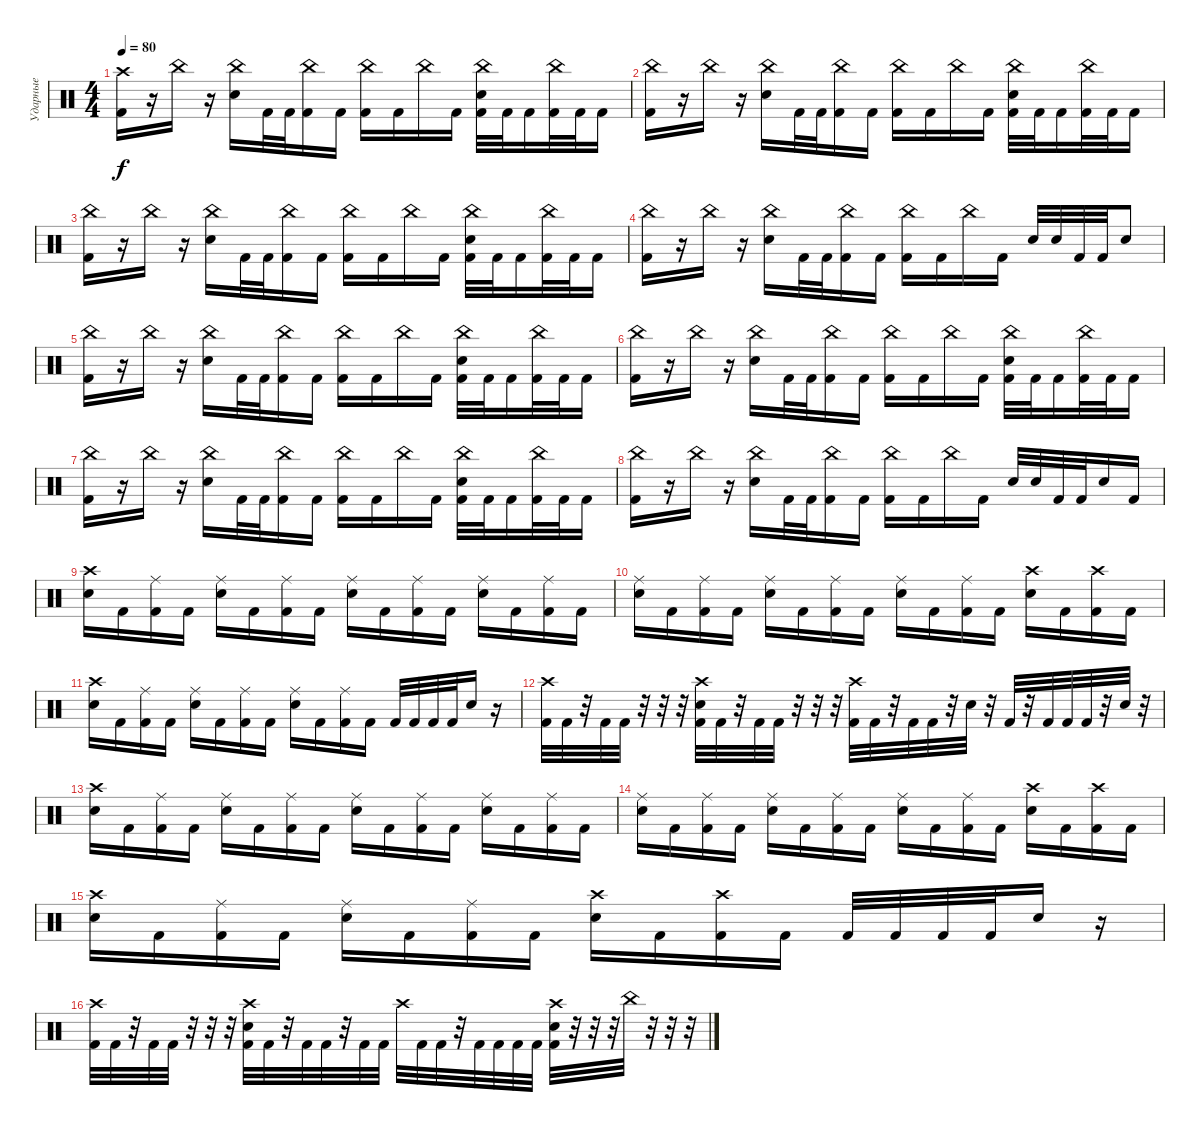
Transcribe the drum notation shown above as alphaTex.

\track ("Ударные" "Ударные") {instrument percussion}
\staff {score}
\articulation defaults
\ts (4 4)
\tempo 80
\clef neutral
\ks c
("Crash high (hit)" "Kick (hit) 2").16{dy f} r.16 "China (hit)".16 r.16 ("China (hit)" "Electric Snare (hit)").16 "Kick (hit) 2".32 "Kick (hit) 2".32 ("China (hit)" "Kick (hit) 2").16 "Kick (hit) 2".16 ("China (hit)" "Kick (hit) 2").16 "Kick (hit) 2".16 "China (hit)".16 "Kick (hit) 2".16 ("China (hit)" "Electric Snare (hit)" "Kick (hit) 2").32 "Kick (hit) 2".32 "Kick (hit) 2".16 ("China (hit)" "Kick (hit) 2").32 "Kick (hit) 2".32 "Kick (hit) 2".16 |
("China (hit)" "Kick (hit) 2").16 r.16 "China (hit)".16 r.16 ("China (hit)" "Electric Snare (hit)").16 "Kick (hit) 2".32 "Kick (hit) 2".32 ("China (hit)" "Kick (hit) 2").16 "Kick (hit) 2".16 ("China (hit)" "Kick (hit) 2").16 "Kick (hit) 2".16 "China (hit)".16 "Kick (hit) 2".16 ("China (hit)" "Electric Snare (hit)" "Kick (hit) 2").32 "Kick (hit) 2".32 "Kick (hit) 2".16 ("China (hit)" "Kick (hit) 2").32 "Kick (hit) 2".32 "Kick (hit) 2".16 |
("China (hit)" "Kick (hit) 2").16 r.16 "China (hit)".16 r.16 ("China (hit)" "Electric Snare (hit)").16 "Kick (hit) 2".32 "Kick (hit) 2".32 ("China (hit)" "Kick (hit) 2").16 "Kick (hit) 2".16 ("China (hit)" "Kick (hit) 2").16 "Kick (hit) 2".16 "China (hit)".16 "Kick (hit) 2".16 ("China (hit)" "Electric Snare (hit)" "Kick (hit) 2").32 "Kick (hit) 2".32 "Kick (hit) 2".16 ("China (hit)" "Kick (hit) 2").32 "Kick (hit) 2".32 "Kick (hit) 2".16 |
("China (hit)" "Kick (hit) 2").16 r.16 "China (hit)".16 r.16 ("China (hit)" "Electric Snare (hit)").16 "Kick (hit) 2".32 "Kick (hit) 2".32 ("China (hit)" "Kick (hit) 2").16 "Kick (hit) 2".16 ("China (hit)" "Kick (hit) 2").16 "Kick (hit) 2".16 "China (hit)".16 "Kick (hit) 2".16 "Electric Snare (hit)".32 "Electric Snare (hit)".32 "Kick (hit) 2".32 "Kick (hit) 2".32 "Electric Snare (hit)".8 |
("China (hit)" "Kick (hit) 2").16 r.16 "China (hit)".16 r.16 ("China (hit)" "Electric Snare (hit)").16 "Kick (hit) 2".32 "Kick (hit) 2".32 ("China (hit)" "Kick (hit) 2").16 "Kick (hit) 2".16 ("China (hit)" "Kick (hit) 2").16 "Kick (hit) 2".16 "China (hit)".16 "Kick (hit) 2".16 ("China (hit)" "Electric Snare (hit)" "Kick (hit) 2").32 "Kick (hit) 2".32 "Kick (hit) 2".16 ("China (hit)" "Kick (hit) 2").32 "Kick (hit) 2".32 "Kick (hit) 2".16 |
("China (hit)" "Kick (hit) 2").16 r.16 "China (hit)".16 r.16 ("China (hit)" "Electric Snare (hit)").16 "Kick (hit) 2".32 "Kick (hit) 2".32 ("China (hit)" "Kick (hit) 2").16 "Kick (hit) 2".16 ("China (hit)" "Kick (hit) 2").16 "Kick (hit) 2".16 "China (hit)".16 "Kick (hit) 2".16 ("China (hit)" "Electric Snare (hit)" "Kick (hit) 2").32 "Kick (hit) 2".32 "Kick (hit) 2".16 ("China (hit)" "Kick (hit) 2").32 "Kick (hit) 2".32 "Kick (hit) 2".16 |
("China (hit)" "Kick (hit) 2").16 r.16 "China (hit)".16 r.16 ("China (hit)" "Electric Snare (hit)").16 "Kick (hit) 2".32 "Kick (hit) 2".32 ("China (hit)" "Kick (hit) 2").16 "Kick (hit) 2".16 ("China (hit)" "Kick (hit) 2").16 "Kick (hit) 2".16 "China (hit)".16 "Kick (hit) 2".16 ("China (hit)" "Electric Snare (hit)" "Kick (hit) 2").32 "Kick (hit) 2".32 "Kick (hit) 2".16 ("China (hit)" "Kick (hit) 2").32 "Kick (hit) 2".32 "Kick (hit) 2".16 |
("China (hit)" "Kick (hit) 2").16 r.16 "China (hit)".16 r.16 ("China (hit)" "Electric Snare (hit)").16 "Kick (hit) 2".32 "Kick (hit) 2".32 ("China (hit)" "Kick (hit) 2").16 "Kick (hit) 2".16 ("China (hit)" "Kick (hit) 2").16 "Kick (hit) 2".16 "China (hit)".16 "Kick (hit) 2".16 "Electric Snare (hit)".32 "Electric Snare (hit)".32 "Kick (hit) 2".32 "Kick (hit) 2".32 "Electric Snare (hit)".16 "Kick (hit) 2".16 |
("Crash high (hit)" "Electric Snare (hit)").16 "Kick (hit) 2".16 ("Ride (middle)" "Kick (hit) 2").16 "Kick (hit) 2".16 ("Ride (middle)" "Electric Snare (hit)").16 "Kick (hit) 2".16 ("Ride (middle)" "Kick (hit) 2").16 "Kick (hit) 2".16 ("Ride (middle)" "Electric Snare (hit)").16 "Kick (hit) 2".16 ("Ride (middle)" "Kick (hit) 2").16 "Kick (hit) 2".16 ("Ride (middle)" "Electric Snare (hit)").16 "Kick (hit) 2".16 ("Ride (middle)" "Kick (hit) 2").16 "Kick (hit) 2".16 |
("Ride (middle)" "Electric Snare (hit)").16 "Kick (hit) 2".16 ("Ride (middle)" "Kick (hit) 2").16 "Kick (hit) 2".16 ("Ride (middle)" "Electric Snare (hit)").16 "Kick (hit) 2".16 ("Ride (middle)" "Kick (hit) 2").16 "Kick (hit) 2".16 ("Ride (middle)" "Electric Snare (hit)").16 "Kick (hit) 2".16 ("Ride (middle)" "Kick (hit) 2").16 "Kick (hit) 2".16 ("Crash high (hit)" "Electric Snare (hit)").16 "Kick (hit) 2".16 ("Crash high (hit)" "Kick (hit) 2").16 "Kick (hit) 2".16 |
("Crash high (hit)" "Electric Snare (hit)").16 "Kick (hit) 2".16 ("Ride (middle)" "Kick (hit) 2").16 "Kick (hit) 2".16 ("Ride (middle)" "Electric Snare (hit)").16 "Kick (hit) 2".16 ("Ride (middle)" "Kick (hit) 2").16 "Kick (hit) 2".16 ("Ride (middle)" "Electric Snare (hit)").16 "Kick (hit) 2".16 ("Ride (middle)" "Kick (hit) 2").16 "Kick (hit) 2".16 "Kick (hit) 2".32 "Kick (hit) 2".32 "Kick (hit) 2".32 "Kick (hit) 2".32 "Electric Snare (hit)".16 r.16 |
("Crash high (hit)" "Kick (hit) 2").32 "Kick (hit) 2".32 r.32 "Kick (hit) 2".32 "Kick (hit) 2".32 r.32 r.32 r.32 ("Crash high (hit)" "Electric Snare (hit)" "Kick (hit) 2").32 "Kick (hit) 2".32 r.32 "Kick (hit) 2".32 "Kick (hit) 2".32 r.32 r.32 r.32 ("Crash high (hit)" "Kick (hit) 2").32 "Kick (hit) 2".32 r.32 "Kick (hit) 2".32 "Kick (hit) 2".32 r.32 "Electric Snare (hit)".32 r.32 "Kick (hit) 2".32 r.32 "Kick (hit) 2".32 "Kick (hit) 2".32 "Kick (hit) 2".32 r.32 "Electric Snare (hit)".32 r.32 |
("Crash high (hit)" "Electric Snare (hit)").16 "Kick (hit) 2".16 ("Ride (middle)" "Kick (hit) 2").16 "Kick (hit) 2".16 ("Ride (middle)" "Electric Snare (hit)").16 "Kick (hit) 2".16 ("Ride (middle)" "Kick (hit) 2").16 "Kick (hit) 2".16 ("Ride (middle)" "Electric Snare (hit)").16 "Kick (hit) 2".16 ("Ride (middle)" "Kick (hit) 2").16 "Kick (hit) 2".16 ("Ride (middle)" "Electric Snare (hit)").16 "Kick (hit) 2".16 ("Ride (middle)" "Kick (hit) 2").16 "Kick (hit) 2".16 |
("Ride (middle)" "Electric Snare (hit)").16 "Kick (hit) 2".16 ("Ride (middle)" "Kick (hit) 2").16 "Kick (hit) 2".16 ("Ride (middle)" "Electric Snare (hit)").16 "Kick (hit) 2".16 ("Ride (middle)" "Kick (hit) 2").16 "Kick (hit) 2".16 ("Ride (middle)" "Electric Snare (hit)").16 "Kick (hit) 2".16 ("Ride (middle)" "Kick (hit) 2").16 "Kick (hit) 2".16 ("Crash high (hit)" "Electric Snare (hit)").16 "Kick (hit) 2".16 ("Crash high (hit)" "Kick (hit) 2").16 "Kick (hit) 2".16 |
("Crash high (hit)" "Electric Snare (hit)").16 "Kick (hit) 2".16 ("Ride (middle)" "Kick (hit) 2").16 "Kick (hit) 2".16 ("Ride (middle)" "Electric Snare (hit)").16 "Kick (hit) 2".16 ("Ride (middle)" "Kick (hit) 2").16 "Kick (hit) 2".16 ("Crash high (hit)" "Electric Snare (hit)").16 "Kick (hit) 2".16 ("Crash high (hit)" "Kick (hit) 2").16 "Kick (hit) 2".16 "Kick (hit) 2".32 "Kick (hit) 2".32 "Kick (hit) 2".32 "Kick (hit) 2".32 "Electric Snare (hit)".16 r.16 |
("Crash high (hit)" "Kick (hit) 2").32 "Kick (hit) 2".32 r.32 "Kick (hit) 2".32 "Kick (hit) 2".32 r.32 r.32 r.32 ("Crash high (hit)" "Electric Snare (hit)" "Kick (hit) 2").32 "Kick (hit) 2".32 r.32 "Kick (hit) 2".32 "Kick (hit) 2".32 r.32 "Kick (hit) 2".32 "Kick (hit) 2".32 "Crash high (hit)".32 "Kick (hit) 2".32 "Kick (hit) 2".32 r.32 "Kick (hit) 2".32 "Kick (hit) 2".32 "Kick (hit) 2".32 "Kick (hit) 2".32 ("Crash high (hit)" "Electric Snare (hit)" "Kick (hit) 2").32 r.32 r.32 r.32 "China (hit)".32 r.32 r.32 r.32
